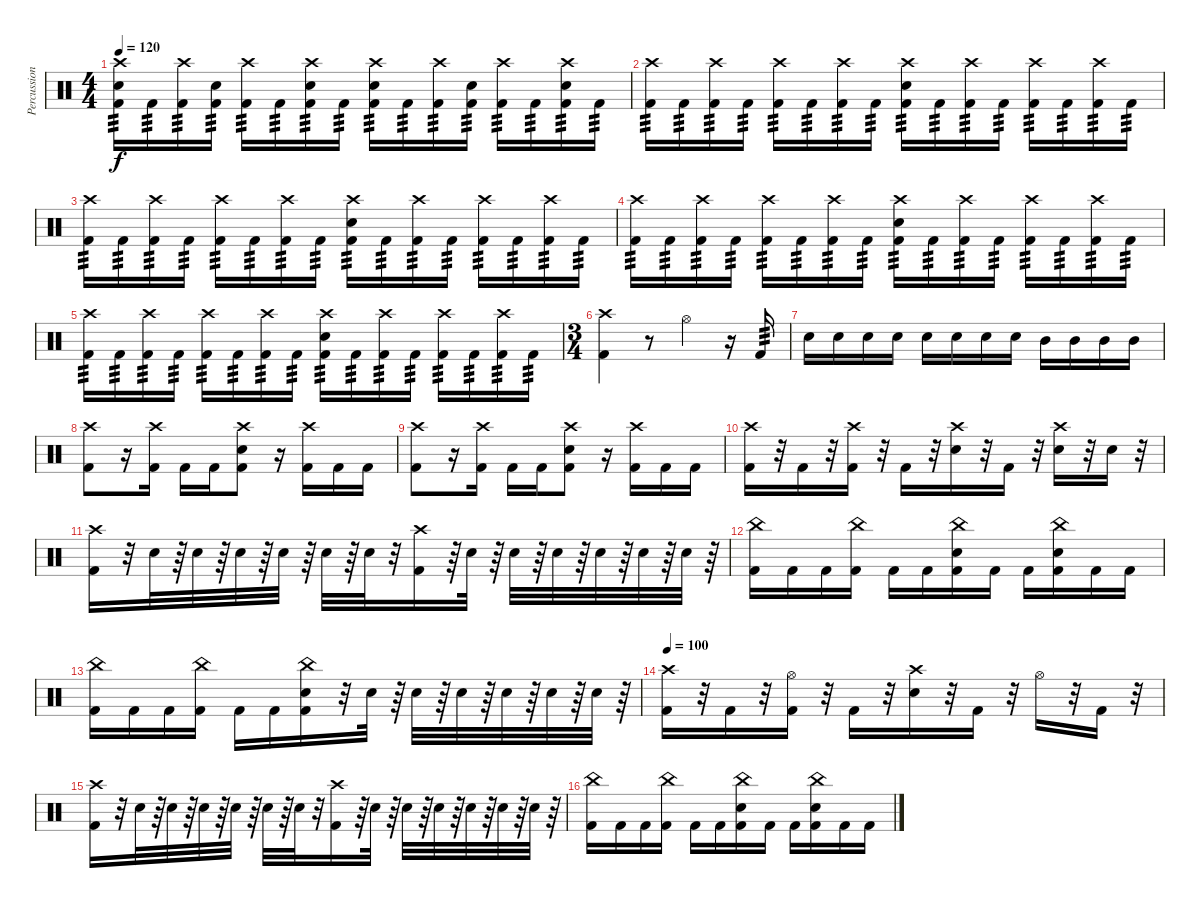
\track ("Percussion" "Percussion") {instrument percussion}
\staff {score}
\articulation defaults
\ts (4 4)
\tempo 120
\clef neutral
\ks c
("Crash high (hit)" "Electric Snare (hit)" "Kick (hit) 2").16{tp 3 dy f} "Kick (hit) 2".16{tp 3} ("Crash high (hit)" "Kick (hit) 2").16{tp 3} ("Electric Snare (hit)" "Kick (hit) 2").16{tp 3} ("Crash high (hit)" "Kick (hit) 2").16{tp 3} "Kick (hit) 2".16{tp 3} ("Crash high (hit)" "Electric Snare (hit)" "Kick (hit) 2").16{tp 3} "Kick (hit) 2".16{tp 3} ("Crash high (hit)" "Electric Snare (hit)" "Kick (hit) 2").16{tp 3} "Kick (hit) 2".16{tp 3} ("Crash high (hit)" "Kick (hit) 2").16{tp 3} ("Electric Snare (hit)" "Kick (hit) 2").16{tp 3} ("Crash high (hit)" "Kick (hit) 2").16{tp 3} "Kick (hit) 2".16{tp 3} ("Crash high (hit)" "Electric Snare (hit)" "Kick (hit) 2").16{tp 3} "Kick (hit) 2".16{tp 3} |
("Crash high (hit)" "Kick (hit) 2").16{tp 3} "Kick (hit) 2".16{tp 3} ("Crash high (hit)" "Kick (hit) 2").16{tp 3} "Kick (hit) 2".16{tp 3} ("Crash high (hit)" "Kick (hit) 2").16{tp 3} "Kick (hit) 2".16{tp 3} ("Crash high (hit)" "Kick (hit) 2").16{tp 3} "Kick (hit) 2".16{tp 3} ("Crash high (hit)" "Electric Snare (hit)" "Kick (hit) 2").16{tp 3} "Kick (hit) 2".16{tp 3} ("Crash high (hit)" "Kick (hit) 2").16{tp 3} "Kick (hit) 2".16{tp 3} ("Crash high (hit)" "Kick (hit) 2").16{tp 3} "Kick (hit) 2".16{tp 3} ("Crash high (hit)" "Kick (hit) 2").16{tp 3} "Kick (hit) 2".16{tp 3} |
("Crash high (hit)" "Kick (hit) 2").16{tp 3} "Kick (hit) 2".16{tp 3} ("Crash high (hit)" "Kick (hit) 2").16{tp 3} "Kick (hit) 2".16{tp 3} ("Crash high (hit)" "Kick (hit) 2").16{tp 3} "Kick (hit) 2".16{tp 3} ("Crash high (hit)" "Kick (hit) 2").16{tp 3} "Kick (hit) 2".16{tp 3} ("Crash high (hit)" "Electric Snare (hit)" "Kick (hit) 2").16{tp 3} "Kick (hit) 2".16{tp 3} ("Crash high (hit)" "Kick (hit) 2").16{tp 3} "Kick (hit) 2".16{tp 3} ("Crash high (hit)" "Kick (hit) 2").16{tp 3} "Kick (hit) 2".16{tp 3} ("Crash high (hit)" "Kick (hit) 2").16{tp 3} "Kick (hit) 2".16{tp 3} |
("Crash high (hit)" "Kick (hit) 2").16{tp 3} "Kick (hit) 2".16{tp 3} ("Crash high (hit)" "Kick (hit) 2").16{tp 3} "Kick (hit) 2".16{tp 3} ("Crash high (hit)" "Kick (hit) 2").16{tp 3} "Kick (hit) 2".16{tp 3} ("Crash high (hit)" "Kick (hit) 2").16{tp 3} "Kick (hit) 2".16{tp 3} ("Crash high (hit)" "Electric Snare (hit)" "Kick (hit) 2").16{tp 3} "Kick (hit) 2".16{tp 3} ("Crash high (hit)" "Kick (hit) 2").16{tp 3} "Kick (hit) 2".16{tp 3} ("Crash high (hit)" "Kick (hit) 2").16{tp 3} "Kick (hit) 2".16{tp 3} ("Crash high (hit)" "Kick (hit) 2").16{tp 3} "Kick (hit) 2".16{tp 3} |
("Crash high (hit)" "Kick (hit) 2").16{tp 3} "Kick (hit) 2".16{tp 3} ("Crash high (hit)" "Kick (hit) 2").16{tp 3} "Kick (hit) 2".16{tp 3} ("Crash high (hit)" "Kick (hit) 2").16{tp 3} "Kick (hit) 2".16{tp 3} ("Crash high (hit)" "Kick (hit) 2").16{tp 3} "Kick (hit) 2".16{tp 3} ("Crash high (hit)" "Electric Snare (hit)" "Kick (hit) 2").16{tp 3} "Kick (hit) 2".16{tp 3} ("Crash high (hit)" "Kick (hit) 2").16{tp 3} "Kick (hit) 2".16{tp 3} ("Crash high (hit)" "Kick (hit) 2").16{tp 3} "Kick (hit) 2".16{tp 3} ("Crash high (hit)" "Kick (hit) 2").16{tp 3} "Kick (hit) 2".16{tp 3} |
\ts (3 4)
("Crash high (hit)" "Kick (hit) 2").4 r.8 "Hi-Hat (open)".4 r.16 "Kick (hit) 2".16{tp 3} |
"Electric Snare (hit)".16 "Electric Snare (hit)".16 "Electric Snare (hit)".16 "Electric Snare (hit)".16 "Electric Snare (hit)".16 "Electric Snare (hit)".16 "Electric Snare (hit)".16 "Electric Snare (hit)".16 "Mid Tom (hit)".16 "Mid Tom (hit)".16 "Mid Tom (hit)".16 "Mid Tom (hit)".16 |
("Crash high (hit)" "Kick (hit) 2").8 r.16 ("Crash high (hit)" "Kick (hit) 2").16 "Kick (hit) 2".16 "Kick (hit) 2".16 ("Crash high (hit)" "Electric Snare (hit)" "Kick (hit) 2").8 r.16 ("Crash high (hit)" "Kick (hit) 2").16 "Kick (hit) 2".16 "Kick (hit) 2".16 |
("Crash high (hit)" "Kick (hit) 2").8 r.16 ("Crash high (hit)" "Kick (hit) 2").16 "Kick (hit) 2".16 "Kick (hit) 2".16 ("Crash high (hit)" "Electric Snare (hit)" "Kick (hit) 2").8 r.16 ("Crash high (hit)" "Kick (hit) 2").16 "Kick (hit) 2".16 "Kick (hit) 2".16 |
("Crash high (hit)" "Kick (hit) 2").16 r.32 "Kick (hit) 2".16 r.32 ("Crash high (hit)" "Kick (hit) 2").16 r.32 "Kick (hit) 2".16 r.32 ("Crash high (hit)" "Electric Snare (hit)").16 r.32 "Kick (hit) 2".16 r.32 ("Crash high (hit)" "Electric Snare (hit)").16 r.32 "Electric Snare (hit)".16 r.32 |
("Crash high (hit)" "Kick (hit) 2").16 r.32 "Electric Snare (hit)".32 r.64 "Electric Snare (hit)".32 r.64 "Electric Snare (hit)".32 r.64 "Electric Snare (hit)".32 r.64 "Electric Snare (hit)".32 r.64 "Electric Snare (hit)".32 r.32 ("Crash high (hit)" "Kick (hit) 2").16 r.64 "Electric Snare (hit)".32 r.64 "Electric Snare (hit)".32 r.64 "Electric Snare (hit)".32 r.64 "Electric Snare (hit)".32 r.64 "Electric Snare (hit)".32 r.64 "Electric Snare (hit)".32 r.64 |
("China (hit)" "Kick (hit) 2").16 "Kick (hit) 2".16 "Kick (hit) 2".16 ("China (hit)" "Kick (hit) 2").16 "Kick (hit) 2".16 "Kick (hit) 2".16 ("China (hit)" "Electric Snare (hit)" "Kick (hit) 2").16 "Kick (hit) 2".16 "Kick (hit) 2".16 ("China (hit)" "Electric Snare (hit)" "Kick (hit) 2").16 "Kick (hit) 2".16 "Kick (hit) 2".16 |
("China (hit)" "Kick (hit) 2").16 "Kick (hit) 2".16 "Kick (hit) 2".16 ("China (hit)" "Kick (hit) 2").16 "Kick (hit) 2".16 "Kick (hit) 2".16 ("China (hit)" "Electric Snare (hit)" "Kick (hit) 2").16 r.32 "Electric Snare (hit)".32 r.64 "Electric Snare (hit)".32 r.64 "Electric Snare (hit)".32 r.64 "Electric Snare (hit)".32 r.64 "Electric Snare (hit)".32 r.64 "Electric Snare (hit)".32 r.64 |
\tempo 100
("Crash high (hit)" "Kick (hit) 2").16 r.32 "Kick (hit) 2".16 r.32 ("Hi-Hat (open)" "Kick (hit) 2").16 r.32 "Kick (hit) 2".16 r.32 ("Crash high (hit)" "Electric Snare (hit)").16 r.32 "Kick (hit) 2".16 r.32 "Hi-Hat (open)".16 r.32 "Kick (hit) 2".16 r.32 |
("Crash high (hit)" "Kick (hit) 2").16 r.32 "Electric Snare (hit)".32 r.64 "Electric Snare (hit)".32 r.64 "Electric Snare (hit)".32 r.64 "Electric Snare (hit)".32 r.64 "Electric Snare (hit)".32 r.64 "Electric Snare (hit)".32 r.32 ("Crash high (hit)" "Kick (hit) 2").16 r.64 "Electric Snare (hit)".32 r.64 "Electric Snare (hit)".32 r.64 "Electric Snare (hit)".32 r.64 "Electric Snare (hit)".32 r.64 "Electric Snare (hit)".32 r.64 "Electric Snare (hit)".32 r.64 |
("China (hit)" "Kick (hit) 2").16 "Kick (hit) 2".16 "Kick (hit) 2".16 ("China (hit)" "Kick (hit) 2").16 "Kick (hit) 2".16 "Kick (hit) 2".16 ("China (hit)" "Electric Snare (hit)" "Kick (hit) 2").16 "Kick (hit) 2".16 "Kick (hit) 2".16 ("China (hit)" "Electric Snare (hit)" "Kick (hit) 2").16 "Kick (hit) 2".16 "Kick (hit) 2".16
